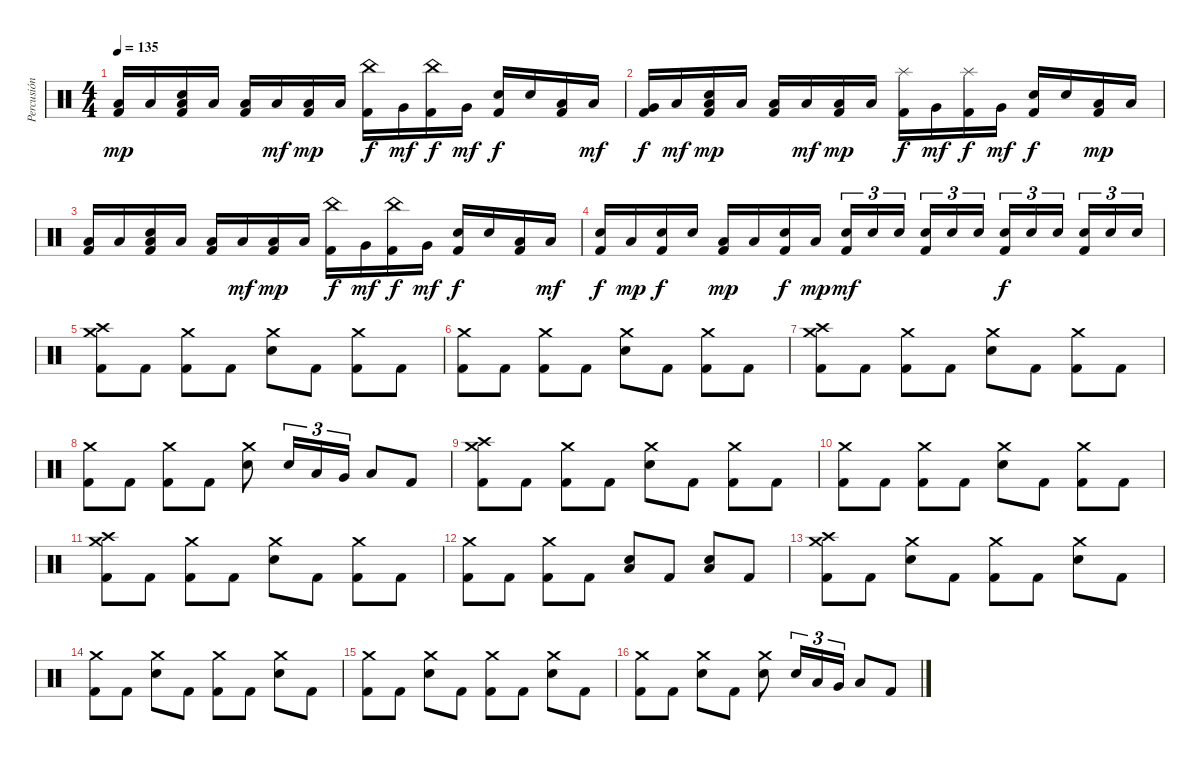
\track ("Percusión" "Percusión") {instrument percussion}
\staff {score}
\articulation defaults
\ts (4 4)
\tempo 135
\clef neutral
\ks c
("Low Floor Tom (hit)" "Kick (hit) 2").16{dy mp} "Low Floor Tom (hit)".16 ("Low Floor Tom (hit)" "Electric Snare (hit)" "Kick (hit) 2").16 "Low Floor Tom (hit)".16 ("Low Floor Tom (hit)" "Kick (hit) 2").16 "Low Tom (hit)".16{dy mf} ("Low Floor Tom (hit)" "Kick (hit) 2").16{dy mp} "Low Floor Tom (hit)".16 ("China (hit)" "Kick (hit) 2").16{dy f} "Very Low Tom (hit)".16{dy mf} ("China (hit)" "Kick (hit) 2").16{dy f} "Very Low Tom (hit)".16{dy mf} ("Electric Snare (hit)" "Kick (hit) 2").16{dy f} "Electric Snare (hit)".16 ("Low Tom (hit)" "Kick (hit) 2").16 "Low Floor Tom (hit)".16{dy mf} |
("Very Low Tom (hit)" "Kick (hit) 2").16{dy f} "Low Floor Tom (hit)".16{dy mf} ("Low Floor Tom (hit)" "Electric Snare (hit)" "Kick (hit) 2").16{dy mp} "Low Floor Tom (hit)".16 ("Low Floor Tom (hit)" "Kick (hit) 2").16 "Low Tom (hit)".16{dy mf} ("Low Floor Tom (hit)" "Kick (hit) 2").16{dy mp} "Low Floor Tom (hit)".16 ("Splash (hit)" "Kick (hit) 2").16{dy f} "Very Low Tom (hit)".16{dy mf} ("Splash (hit)" "Kick (hit) 2").16{dy f} "Very Low Tom (hit)".16{dy mf} ("Electric Snare (hit)" "Kick (hit) 2").16{dy f} "Electric Snare (hit)".16 ("Low Floor Tom (hit)" "Kick (hit) 2").16{dy mp} "Low Floor Tom (hit)".16 |
("Low Floor Tom (hit)" "Kick (hit) 2").16 "Low Floor Tom (hit)".16 ("Low Floor Tom (hit)" "Electric Snare (hit)" "Kick (hit) 2").16 "Low Floor Tom (hit)".16 ("Low Floor Tom (hit)" "Kick (hit) 2").16 "Low Tom (hit)".16{dy mf} ("Low Floor Tom (hit)" "Kick (hit) 2").16{dy mp} "Low Floor Tom (hit)".16 ("China (hit)" "Kick (hit) 2").16{dy f} "Very Low Tom (hit)".16{dy mf} ("China (hit)" "Kick (hit) 2").16{dy f} "Very Low Tom (hit)".16{dy mf} ("Electric Snare (hit)" "Kick (hit) 2").16{dy f} "Electric Snare (hit)".16 ("Low Tom (hit)" "Kick (hit) 2").16 "Low Floor Tom (hit)".16{dy mf} |
("Electric Snare (hit)" "Kick (hit) 2").16{dy f} "Low Floor Tom (hit)".16{dy mp} ("Electric Snare (hit)" "Kick (hit) 2").16{dy f} "Electric Snare (hit)".16 ("Low Floor Tom (hit)" "Kick (hit) 2").16{dy mp} "Low Floor Tom (hit)".16 ("Electric Snare (hit)" "Kick (hit) 2").16{dy f} "Low Floor Tom (hit)".16{dy mp} ("Electric Snare (hit)" "Kick (hit) 2").16{tu (3 2) dy mf} "Electric Snare (hit)".16{tu (3 2)} "Electric Snare (hit)".16{tu (3 2) beam splitsecondary} ("Electric Snare (hit)" "Kick (hit) 2").16{tu (3 2)} "Electric Snare (hit)".16{tu (3 2)} "Electric Snare (hit)".16{tu (3 2)} ("Electric Snare (hit)" "Kick (hit) 2").16{tu (3 2) dy f} "Electric Snare (hit)".16{tu (3 2)} "Electric Snare (hit)".16{tu (3 2) beam splitsecondary} ("Electric Snare (hit)" "Kick (hit) 2").16{tu (3 2)} "Electric Snare (hit)".16{tu (3 2)} "Electric Snare (hit)".16{tu (3 2)} |
("Crash high (hit)" "Crash medium (hit)" "Kick (hit) 2").8 "Kick (hit) 2".8 ("Crash medium (hit)" "Kick (hit) 2").8 "Kick (hit) 2".8 ("Crash medium (hit)" "Electric Snare (hit)").8 "Kick (hit) 2".8 ("Crash medium (hit)" "Kick (hit) 2").8 "Kick (hit) 2".8 |
("Crash medium (hit)" "Kick (hit) 2").8 "Kick (hit) 2".8 ("Crash medium (hit)" "Kick (hit) 2").8 "Kick (hit) 2".8 ("Crash medium (hit)" "Electric Snare (hit)").8 "Kick (hit) 2".8 ("Crash medium (hit)" "Kick (hit) 2").8 "Kick (hit) 2".8 |
("Crash high (hit)" "Crash medium (hit)" "Kick (hit) 2").8 "Kick (hit) 2".8 ("Crash medium (hit)" "Kick (hit) 2").8 "Kick (hit) 2".8 ("Crash medium (hit)" "Electric Snare (hit)").8 "Kick (hit) 2".8 ("Crash medium (hit)" "Kick (hit) 2").8 "Kick (hit) 2".8 |
("Crash medium (hit)" "Kick (hit) 2").8 "Kick (hit) 2".8 ("Crash medium (hit)" "Kick (hit) 2").8 "Kick (hit) 2".8 ("Crash medium (hit)" "Electric Snare (hit)").8 "Electric Snare (hit)".16{tu (3 2)} "Low Tom (hit)".16{tu (3 2)} "Very Low Tom (hit)".16{tu (3 2)} "Low Floor Tom (hit)".8 "Kick (hit) 2".8 |
("Crash high (hit)" "Crash medium (hit)" "Kick (hit) 2").8 "Kick (hit) 2".8 ("Crash medium (hit)" "Kick (hit) 2").8 "Kick (hit) 2".8 ("Crash medium (hit)" "Electric Snare (hit)").8 "Kick (hit) 2".8 ("Crash medium (hit)" "Kick (hit) 2").8 "Kick (hit) 2".8 |
("Crash medium (hit)" "Kick (hit) 2").8 "Kick (hit) 2".8 ("Crash medium (hit)" "Kick (hit) 2").8 "Kick (hit) 2".8 ("Crash medium (hit)" "Electric Snare (hit)").8 "Kick (hit) 2".8 ("Crash medium (hit)" "Kick (hit) 2").8 "Kick (hit) 2".8 |
("Crash high (hit)" "Crash medium (hit)" "Kick (hit) 2").8 "Kick (hit) 2".8 ("Crash medium (hit)" "Kick (hit) 2").8 "Kick (hit) 2".8 ("Crash medium (hit)" "Electric Snare (hit)").8 "Kick (hit) 2".8 ("Crash medium (hit)" "Kick (hit) 2").8 "Kick (hit) 2".8 |
("Crash medium (hit)" "Kick (hit) 2").8 "Kick (hit) 2".8 ("Crash medium (hit)" "Kick (hit) 2").8 "Kick (hit) 2".8 ("Low Floor Tom (hit)" "Electric Snare (hit)").8 "Kick (hit) 2".8 ("Low Floor Tom (hit)" "Electric Snare (hit)").8 "Kick (hit) 2".8 |
("Crash high (hit)" "Crash medium (hit)" "Kick (hit) 2").8 "Kick (hit) 2".8 ("Crash medium (hit)" "Electric Snare (hit)").8 "Kick (hit) 2".8 ("Crash medium (hit)" "Kick (hit) 2").8 "Kick (hit) 2".8 ("Crash medium (hit)" "Electric Snare (hit)").8 "Kick (hit) 2".8 |
("Crash medium (hit)" "Kick (hit) 2").8 "Kick (hit) 2".8 ("Crash medium (hit)" "Electric Snare (hit)").8 "Kick (hit) 2".8 ("Crash medium (hit)" "Kick (hit) 2").8 "Kick (hit) 2".8 ("Crash medium (hit)" "Electric Snare (hit)").8 "Kick (hit) 2".8 |
("Crash medium (hit)" "Kick (hit) 2").8 "Kick (hit) 2".8 ("Crash medium (hit)" "Electric Snare (hit)").8 "Kick (hit) 2".8 ("Crash medium (hit)" "Kick (hit) 2").8 "Kick (hit) 2".8 ("Crash medium (hit)" "Electric Snare (hit)").8 "Kick (hit) 2".8 |
("Crash medium (hit)" "Kick (hit) 2").8 "Kick (hit) 2".8 ("Crash medium (hit)" "Electric Snare (hit)").8 "Kick (hit) 2".8 ("Crash medium (hit)" "Electric Snare (hit)").8 "Electric Snare (hit)".16{tu (3 2)} "Low Tom (hit)".16{tu (3 2)} "Very Low Tom (hit)".16{tu (3 2)} "Low Floor Tom (hit)".8 "Kick (hit) 2".8
